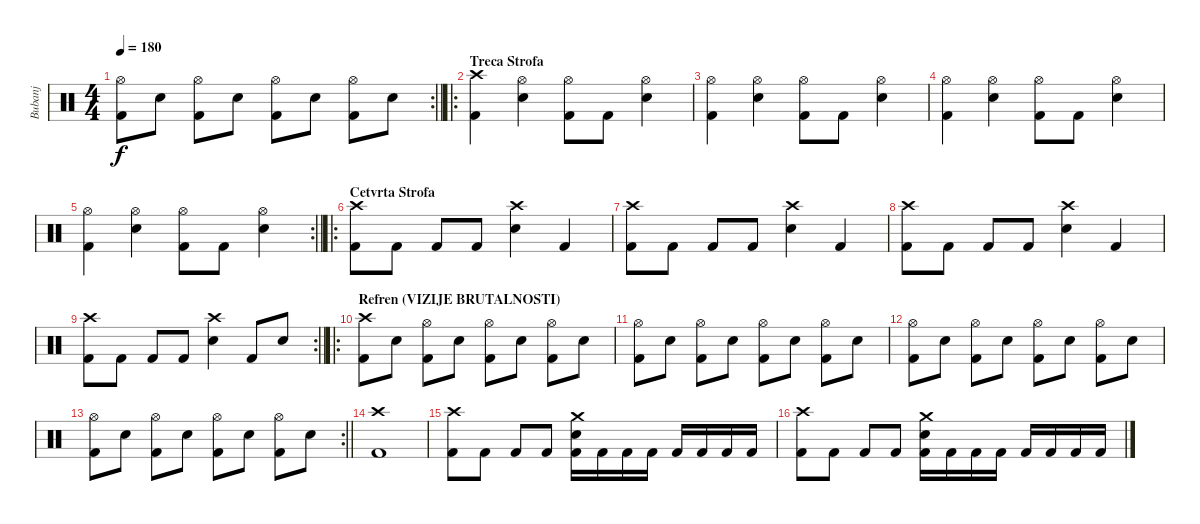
\track ("Bubanj" "Bubanj") {instrument percussion}
\staff
\articulation defaults
\rc 2
\ts (4 4)
\tempo 180
\clef neutral
\barLineRight lightlight
\ks c
("Hi-Hat (open)" "Kick (hit) 2").8{dy f} "Snare (hit) 2".8 ("Hi-Hat (open)" "Kick (hit) 2").8 "Snare (hit) 2".8 ("Hi-Hat (open)" "Kick (hit) 2").8 "Snare (hit) 2".8 ("Hi-Hat (open)" "Kick (hit) 2").8 "Snare (hit) 2".8 |
\ro
\section ("" "Treca Strofa")
("Crash high (hit)" "Kick (hit) 2").4 ("Hi-Hat (open)" "Snare (hit) 2").4 ("Hi-Hat (open)" "Kick (hit) 2").8 "Kick (hit) 2".8 ("Hi-Hat (open)" "Snare (hit) 2").4 |
("Hi-Hat (open)" "Kick (hit) 2").4 ("Hi-Hat (open)" "Snare (hit) 2").4 ("Hi-Hat (open)" "Kick (hit) 2").8 "Kick (hit) 2".8 ("Hi-Hat (open)" "Snare (hit) 2").4 |
("Hi-Hat (open)" "Kick (hit) 2").4 ("Hi-Hat (open)" "Snare (hit) 2").4 ("Hi-Hat (open)" "Kick (hit) 2").8 "Kick (hit) 2".8 ("Hi-Hat (open)" "Snare (hit) 2").4 |
\rc 2
\barLineRight lightlight
("Hi-Hat (open)" "Kick (hit) 2").4 ("Hi-Hat (open)" "Snare (hit) 2").4 ("Hi-Hat (open)" "Kick (hit) 2").8 "Kick (hit) 2".8 ("Hi-Hat (open)" "Snare (hit) 2").4 |
\ro
\section ("" "Cetvrta Strofa")
("Crash high (hit)" "Kick (hit) 2").8 "Kick (hit) 2".8 "Kick (hit) 2".8 "Kick (hit) 2".8 ("Crash high (hit)" "Snare (hit) 2").4 "Kick (hit) 2".4 |
("Crash high (hit)" "Kick (hit) 2").8 "Kick (hit) 2".8 "Kick (hit) 2".8 "Kick (hit) 2".8 ("Crash high (hit)" "Snare (hit) 2").4 "Kick (hit) 2".4 |
("Crash high (hit)" "Kick (hit) 2").8 "Kick (hit) 2".8 "Kick (hit) 2".8 "Kick (hit) 2".8 ("Crash high (hit)" "Snare (hit) 2").4 "Kick (hit) 2".4 |
\rc 2
\barLineRight lightlight
("Crash high (hit)" "Kick (hit) 2").8 "Kick (hit) 2".8 "Kick (hit) 2".8 "Kick (hit) 2".8 ("Crash high (hit)" "Snare (hit) 2").4 "Kick (hit) 2".8 "Snare (hit) 2".8 |
\ro
\section ("" "Refren (VIZIJE BRUTALNOSTI)")
("Crash high (hit)" "Kick (hit) 2").8 "Snare (hit) 2".8 ("Hi-Hat (open)" "Kick (hit) 2").8 "Snare (hit) 2".8 ("Hi-Hat (open)" "Kick (hit) 2").8 "Snare (hit) 2".8 ("Hi-Hat (open)" "Kick (hit) 2").8 "Snare (hit) 2".8 |
("Hi-Hat (open)" "Kick (hit) 2").8 "Snare (hit) 2".8 ("Hi-Hat (open)" "Kick (hit) 2").8 "Snare (hit) 2".8 ("Hi-Hat (open)" "Kick (hit) 2").8 "Snare (hit) 2".8 ("Hi-Hat (open)" "Kick (hit) 2").8 "Snare (hit) 2".8 |
("Hi-Hat (open)" "Kick (hit) 2").8 "Snare (hit) 2".8 ("Hi-Hat (open)" "Kick (hit) 2").8 "Snare (hit) 2".8 ("Hi-Hat (open)" "Kick (hit) 2").8 "Snare (hit) 2".8 ("Hi-Hat (open)" "Kick (hit) 2").8 "Snare (hit) 2".8 |
\rc 2
\barLineRight lightlight
("Hi-Hat (open)" "Kick (hit) 2").8 "Snare (hit) 2".8 ("Hi-Hat (open)" "Kick (hit) 2").8 "Snare (hit) 2".8 ("Hi-Hat (open)" "Kick (hit) 2").8 "Snare (hit) 2".8 ("Hi-Hat (open)" "Kick (hit) 2").8 "Snare (hit) 2".8 |
("Crash high (hit)" "Kick (hit) 2").1 |
("Crash high (hit)" "Kick (hit) 2").8 "Kick (hit) 2".8 "Kick (hit) 2".8 "Kick (hit) 2".8 ("Electric Snare (hit)" "Crash medium (hit)" "Kick (hit) 2").16 "Kick (hit) 2".16 "Kick (hit) 2".16 "Kick (hit) 2".16 "Kick (hit) 2".16 "Kick (hit) 2".16 "Kick (hit) 2".16 "Kick (hit) 2".16 |
("Crash high (hit)" "Kick (hit) 2").8 "Kick (hit) 2".8 "Kick (hit) 2".8 "Kick (hit) 2".8 ("Electric Snare (hit)" "Crash medium (hit)" "Kick (hit) 2").16 "Kick (hit) 2".16 "Kick (hit) 2".16 "Kick (hit) 2".16 "Kick (hit) 2".16 "Kick (hit) 2".16 "Kick (hit) 2".16 "Kick (hit) 2".16
